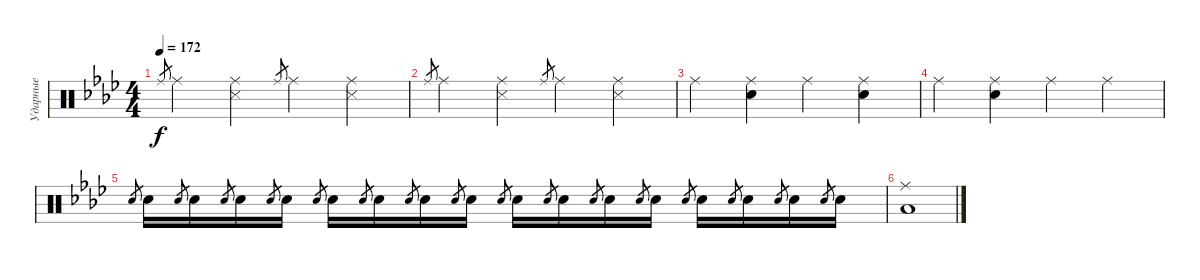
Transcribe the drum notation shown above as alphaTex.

\track ("Ударные" "Ударные") {instrument percussion}
\staff {score}
\articulation defaults
\ts (4 4)
\tempo 172
\clef neutral
\ks ab "Ride (middle)".8{gr dy f} "Ride (middle)".4
("Ride (middle)" "Snare (side stick) 3").4 "Ride (middle)".8{gr} "Ride (middle)".4 ("Ride (middle)" "Snare (side stick) 3").4 |
"Ride (middle)".8{gr} "Ride (middle)".4 ("Ride (middle)" "Snare (side stick) 3").4 "Ride (middle)".8{gr} "Ride (middle)".4 ("Ride (middle)" "Snare (side stick) 3").4 |
"Ride (middle)".4 ("Ride (middle)" "Electric Snare (hit)").4 "Ride (middle)".4 ("Ride (middle)" "Electric Snare (hit)").4 |
"Ride (middle)".4 ("Ride (middle)" "Electric Snare (hit)").4 "Ride (middle)".4 "Ride (middle)".4 |
"Electric Snare (hit)".8{gr} "Electric Snare (hit)".16 "Electric Snare (hit)".8{gr} "Electric Snare (hit)".16 "Electric Snare (hit)".8{gr} "Electric Snare (hit)".16 "Electric Snare (hit)".8{gr} "Electric Snare (hit)".16 "Electric Snare (hit)".8{gr} "Electric Snare (hit)".16 "Electric Snare (hit)".8{gr} "Electric Snare (hit)".16 "Electric Snare (hit)".8{gr} "Electric Snare (hit)".16 "Electric Snare (hit)".8{gr} "Electric Snare (hit)".16 "Electric Snare (hit)".8{gr} "Electric Snare (hit)".16 "Electric Snare (hit)".8{gr} "Electric Snare (hit)".16 "Electric Snare (hit)".8{gr} "Electric Snare (hit)".16 "Electric Snare (hit)".8{gr} "Electric Snare (hit)".16 "Electric Snare (hit)".8{gr} "Electric Snare (hit)".16 "Electric Snare (hit)".8{gr} "Electric Snare (hit)".16 "Electric Snare (hit)".8{gr} "Electric Snare (hit)".16 "Electric Snare (hit)".8{gr} "Electric Snare (hit)".16 |
("Ride (middle)" "Low Tom (hit)").1
